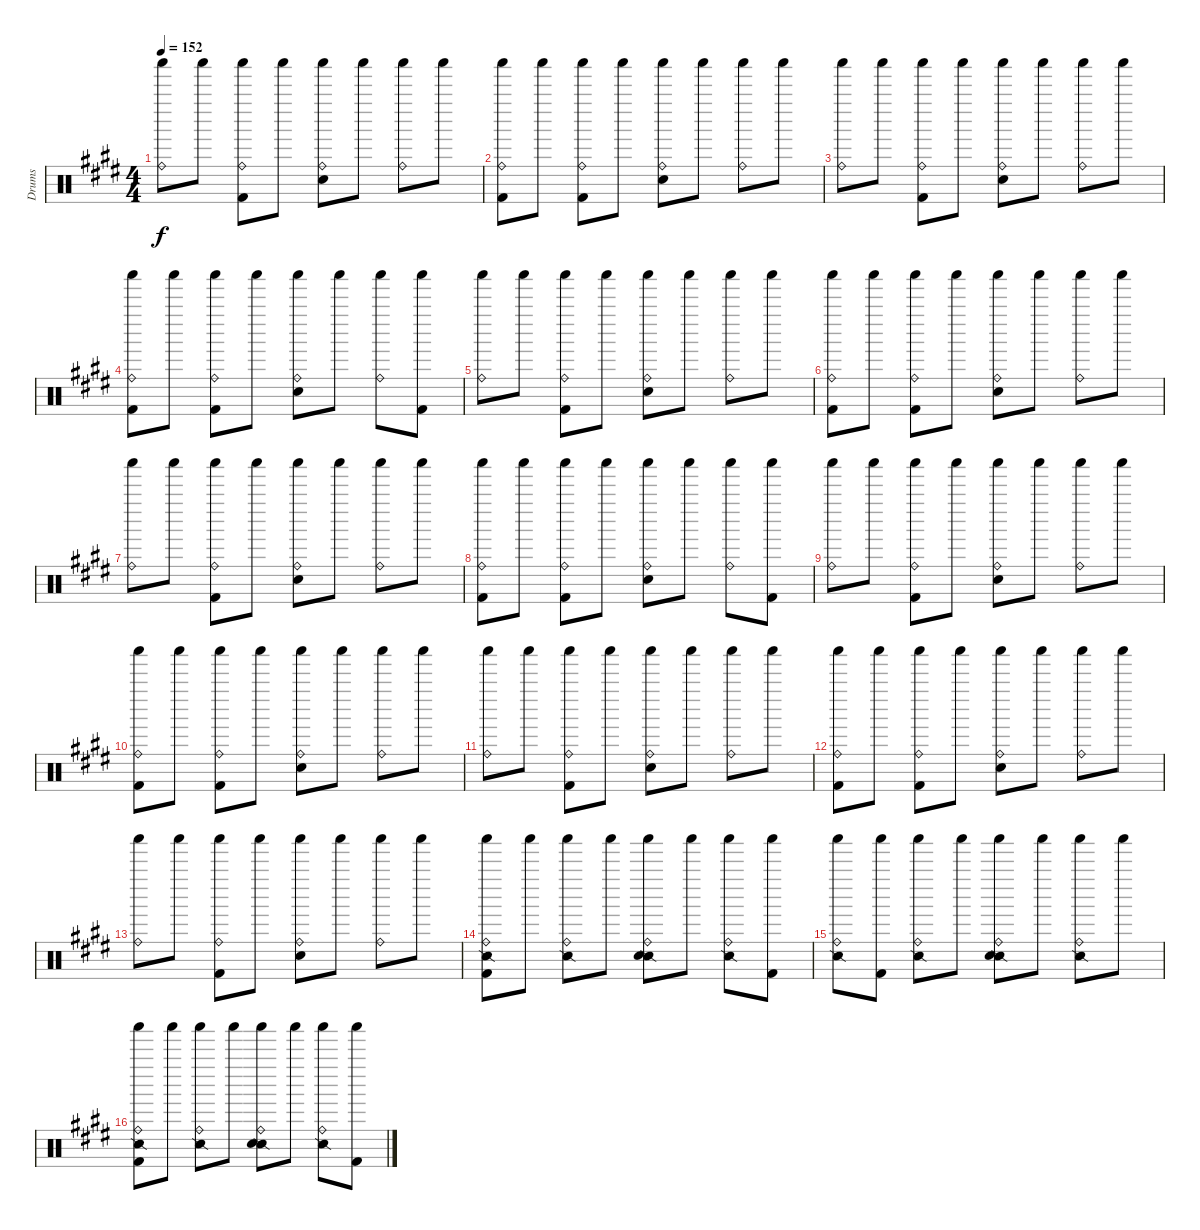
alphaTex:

\track ("Drums" "Drums") {instrument percussion}
\staff {score}
\articulation defaults
\ts (4 4)
\tempo 152
\clef neutral
\ks c#minor
("Ride (bell)" "Shaker (hit)").8{dy f} "Shaker (hit)".8 ("Ride (bell)" "Kick (hit) 2" "Shaker (hit)").8 "Shaker (hit)".8 ("Ride (bell)" "Snare (hit) 2" "Shaker (hit)").8 "Shaker (hit)".8 ("Ride (bell)" "Shaker (hit)").8 "Shaker (hit)".8 |
("Ride (bell)" "Kick (hit) 2" "Shaker (hit)").8 "Shaker (hit)".8 ("Ride (bell)" "Kick (hit) 2" "Shaker (hit)").8 "Shaker (hit)".8 ("Ride (bell)" "Snare (hit) 2" "Shaker (hit)").8 "Shaker (hit)".8 ("Ride (bell)" "Shaker (hit)").8 "Shaker (hit)".8 |
("Ride (bell)" "Shaker (hit)").8 "Shaker (hit)".8 ("Ride (bell)" "Kick (hit) 2" "Shaker (hit)").8 "Shaker (hit)".8 ("Ride (bell)" "Snare (hit) 2" "Shaker (hit)").8 "Shaker (hit)".8 ("Ride (bell)" "Shaker (hit)").8 "Shaker (hit)".8 |
("Ride (bell)" "Kick (hit) 2" "Shaker (hit)").8 "Shaker (hit)".8 ("Ride (bell)" "Kick (hit) 2" "Shaker (hit)").8 "Shaker (hit)".8 ("Ride (bell)" "Snare (hit) 2" "Shaker (hit)").8 "Shaker (hit)".8 ("Ride (bell)" "Shaker (hit)").8 ("Kick (hit) 2" "Shaker (hit)").8 |
("Ride (bell)" "Shaker (hit)").8 "Shaker (hit)".8 ("Ride (bell)" "Kick (hit) 2" "Shaker (hit)").8 "Shaker (hit)".8 ("Ride (bell)" "Snare (hit) 2" "Shaker (hit)").8 "Shaker (hit)".8 ("Ride (bell)" "Shaker (hit)").8 "Shaker (hit)".8 |
("Ride (bell)" "Kick (hit) 2" "Shaker (hit)").8 "Shaker (hit)".8 ("Ride (bell)" "Kick (hit) 2" "Shaker (hit)").8 "Shaker (hit)".8 ("Ride (bell)" "Snare (hit) 2" "Shaker (hit)").8 "Shaker (hit)".8 ("Ride (bell)" "Shaker (hit)").8 "Shaker (hit)".8 |
("Ride (bell)" "Shaker (hit)").8 "Shaker (hit)".8 ("Ride (bell)" "Kick (hit) 2" "Shaker (hit)").8 "Shaker (hit)".8 ("Ride (bell)" "Snare (hit) 2" "Shaker (hit)").8 "Shaker (hit)".8 ("Ride (bell)" "Shaker (hit)").8 "Shaker (hit)".8 |
("Ride (bell)" "Kick (hit) 2" "Shaker (hit)").8 "Shaker (hit)".8 ("Ride (bell)" "Kick (hit) 2" "Shaker (hit)").8 "Shaker (hit)".8 ("Ride (bell)" "Snare (hit) 2" "Shaker (hit)").8 "Shaker (hit)".8 ("Ride (bell)" "Shaker (hit)").8 ("Kick (hit) 2" "Shaker (hit)").8 |
("Ride (bell)" "Shaker (hit)").8 "Shaker (hit)".8 ("Ride (bell)" "Kick (hit) 2" "Shaker (hit)").8 "Shaker (hit)".8 ("Ride (bell)" "Snare (hit) 2" "Shaker (hit)").8 "Shaker (hit)".8 ("Ride (bell)" "Shaker (hit)").8 "Shaker (hit)".8 |
("Ride (bell)" "Kick (hit) 2" "Shaker (hit)").8 "Shaker (hit)".8 ("Ride (bell)" "Kick (hit) 2" "Shaker (hit)").8 "Shaker (hit)".8 ("Ride (bell)" "Snare (hit) 2" "Shaker (hit)").8 "Shaker (hit)".8 ("Ride (bell)" "Shaker (hit)").8 "Shaker (hit)".8 |
("Ride (bell)" "Shaker (hit)").8 "Shaker (hit)".8 ("Ride (bell)" "Kick (hit) 2" "Shaker (hit)").8 "Shaker (hit)".8 ("Ride (bell)" "Snare (hit) 2" "Shaker (hit)").8 "Shaker (hit)".8 ("Ride (bell)" "Shaker (hit)").8 "Shaker (hit)".8 |
("Ride (bell)" "Kick (hit) 2" "Shaker (hit)").8 "Shaker (hit)".8 ("Ride (bell)" "Kick (hit) 2" "Shaker (hit)").8 "Shaker (hit)".8 ("Ride (bell)" "Snare (hit) 2" "Shaker (hit)").8 "Shaker (hit)".8 ("Ride (bell)" "Shaker (hit)").8 "Shaker (hit)".8 |
("Ride (bell)" "Shaker (hit)").8 "Shaker (hit)".8 ("Ride (bell)" "Kick (hit) 2" "Shaker (hit)").8 "Shaker (hit)".8 ("Ride (bell)" "Snare (hit) 2" "Shaker (hit)").8 "Shaker (hit)".8 ("Ride (bell)" "Shaker (hit)").8 "Shaker (hit)".8 |
("Snare (side stick) 2" "Ride (bell)" "Kick (hit) 2" "Shaker (hit)").8 "Shaker (hit)".8 ("Snare (side stick) 2" "Ride (bell)" "Shaker (hit)").8 "Shaker (hit)".8 ("Snare (side stick) 2" "Ride (bell)" "Snare (hit) 2" "Shaker (hit)").8 "Shaker (hit)".8 ("Snare (side stick) 2" "Ride (bell)" "Shaker (hit)").8 ("Kick (hit) 2" "Shaker (hit)").8 |
("Snare (side stick) 2" "Ride (bell)" "Shaker (hit)").8 ("Shaker (hit)" "Kick (hit) 2").8 ("Snare (side stick) 2" "Ride (bell)" "Shaker (hit)").8 "Shaker (hit)".8 ("Snare (side stick) 2" "Ride (bell)" "Snare (hit) 2" "Shaker (hit)").8 "Shaker (hit)".8 ("Snare (side stick) 2" "Ride (bell)" "Shaker (hit)").8 "Shaker (hit)".8 |
("Snare (side stick) 2" "Ride (bell)" "Kick (hit) 2" "Shaker (hit)").8 "Shaker (hit)".8 ("Snare (side stick) 2" "Ride (bell)" "Shaker (hit)").8 "Shaker (hit)".8 ("Snare (side stick) 2" "Ride (bell)" "Snare (hit) 2" "Shaker (hit)").8 "Shaker (hit)".8 ("Snare (side stick) 2" "Ride (bell)" "Shaker (hit)").8 ("Kick (hit) 2" "Shaker (hit)").8
